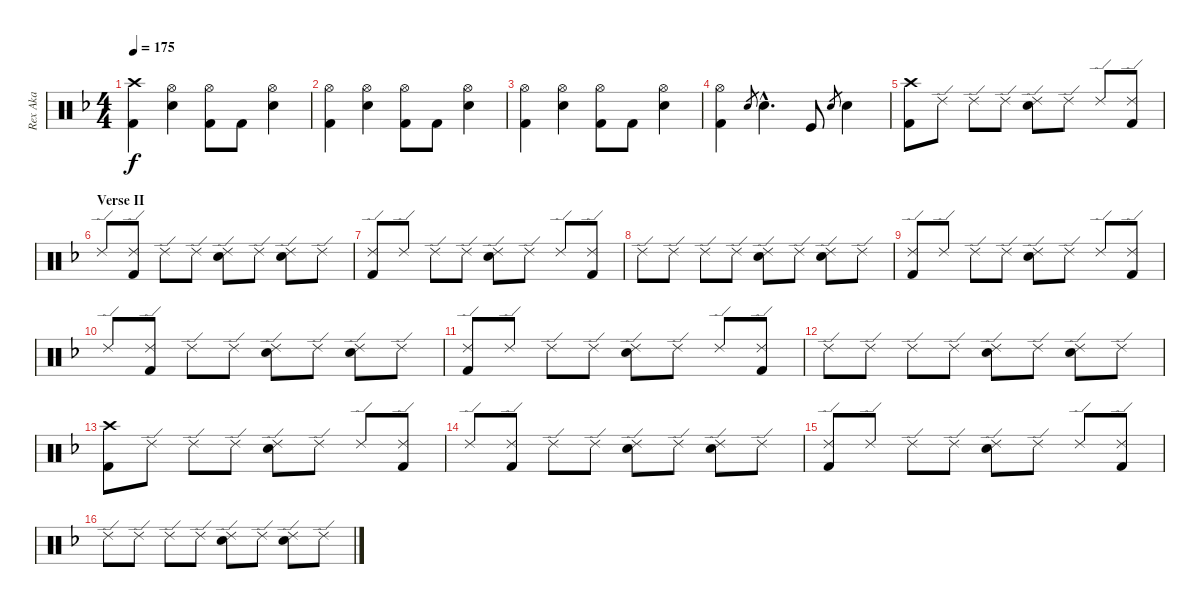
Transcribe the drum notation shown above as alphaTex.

\track ("Rex Aka" "Rex Aka") {instrument percussion}
\staff {score}
\articulation defaults
\ts (4 4)
\tempo 175
\clef neutral
\ks f
("Crash high (hit)" "Kick (hit) 2").4{dy f} ("Hi-Hat (open)" "Electric Snare (hit)").4 ("Hi-Hat (open)" "Kick (hit) 2").8 "Kick (hit) 2".8 ("Hi-Hat (open)" "Electric Snare (hit)").4 |
("Hi-Hat (open)" "Kick (hit) 2").4 ("Hi-Hat (open)" "Electric Snare (hit)").4 ("Hi-Hat (open)" "Kick (hit) 2").8 "Kick (hit) 2".8 ("Hi-Hat (open)" "Electric Snare (hit)").4 |
("Hi-Hat (open)" "Kick (hit) 2").4 ("Hi-Hat (open)" "Electric Snare (hit)").4 ("Hi-Hat (open)" "Kick (hit) 2").8 "Kick (hit) 2".8 ("Hi-Hat (open)" "Electric Snare (hit)").4 |
("Hi-Hat (open)" "Kick (hit) 2").4 "Electric Snare (hit)".8{gr} "Electric Snare (hit)"{hac}.4{d} "Kick (hit)".8 "Electric Snare (hit)".8{gr} "Electric Snare (hit)".4 |
("Crash high (hit)" "Kick (hit) 2").8 "Ride (edge) 2".8 "Ride (edge) 2".8 "Ride (edge) 2".8 ("Ride (edge) 2" "Electric Snare (hit)").8 "Ride (edge) 2".8 "Ride (edge) 2".8 ("Ride (edge) 2" "Kick (hit) 2").8 |
\section ("" "Verse II")
"Ride (edge) 2".8 ("Ride (edge) 2" "Kick (hit) 2").8 "Ride (edge) 2".8 "Ride (edge) 2".8 ("Ride (edge) 2" "Electric Snare (hit)").8 "Ride (edge) 2".8 ("Ride (edge) 2" "Electric Snare (hit)").8 "Ride (edge) 2".8 |
("Ride (edge) 2" "Kick (hit) 2").8 "Ride (edge) 2".8 "Ride (edge) 2".8 "Ride (edge) 2".8 ("Ride (edge) 2" "Electric Snare (hit)").8 "Ride (edge) 2".8 "Ride (edge) 2".8 ("Ride (edge) 2" "Kick (hit) 2").8 |
"Ride (edge) 2".8 "Ride (edge) 2".8 "Ride (edge) 2".8 "Ride (edge) 2".8 ("Ride (edge) 2" "Electric Snare (hit)").8 "Ride (edge) 2".8 ("Ride (edge) 2" "Electric Snare (hit)").8 "Ride (edge) 2".8 |
("Ride (edge) 2" "Kick (hit) 2").8 "Ride (edge) 2".8 "Ride (edge) 2".8 "Ride (edge) 2".8 ("Ride (edge) 2" "Electric Snare (hit)").8 "Ride (edge) 2".8 "Ride (edge) 2".8 ("Ride (edge) 2" "Kick (hit) 2").8 |
"Ride (edge) 2".8 ("Ride (edge) 2" "Kick (hit) 2").8 "Ride (edge) 2".8 "Ride (edge) 2".8 ("Ride (edge) 2" "Electric Snare (hit)").8 "Ride (edge) 2".8 ("Ride (edge) 2" "Electric Snare (hit)").8 "Ride (edge) 2".8 |
("Ride (edge) 2" "Kick (hit) 2").8 "Ride (edge) 2".8 "Ride (edge) 2".8 "Ride (edge) 2".8 ("Ride (edge) 2" "Electric Snare (hit)").8 "Ride (edge) 2".8 "Ride (edge) 2".8 ("Ride (edge) 2" "Kick (hit) 2").8 |
"Ride (edge) 2".8 "Ride (edge) 2".8 "Ride (edge) 2".8 "Ride (edge) 2".8 ("Ride (edge) 2" "Electric Snare (hit)").8 "Ride (edge) 2".8 ("Ride (edge) 2" "Electric Snare (hit)").8 "Ride (edge) 2".8 |
("Crash high (hit)" "Kick (hit) 2").8 "Ride (edge) 2".8 "Ride (edge) 2".8 "Ride (edge) 2".8 ("Ride (edge) 2" "Electric Snare (hit)").8 "Ride (edge) 2".8 "Ride (edge) 2".8 ("Ride (edge) 2" "Kick (hit) 2").8 |
"Ride (edge) 2".8 ("Ride (edge) 2" "Kick (hit) 2").8 "Ride (edge) 2".8 "Ride (edge) 2".8 ("Ride (edge) 2" "Electric Snare (hit)").8 "Ride (edge) 2".8 ("Ride (edge) 2" "Electric Snare (hit)").8 "Ride (edge) 2".8 |
("Ride (edge) 2" "Kick (hit) 2").8 "Ride (edge) 2".8 "Ride (edge) 2".8 "Ride (edge) 2".8 ("Ride (edge) 2" "Electric Snare (hit)").8 "Ride (edge) 2".8 "Ride (edge) 2".8 ("Ride (edge) 2" "Kick (hit) 2").8 |
"Ride (edge) 2".8 "Ride (edge) 2".8 "Ride (edge) 2".8 "Ride (edge) 2".8 ("Ride (edge) 2" "Electric Snare (hit)").8 "Ride (edge) 2".8 ("Ride (edge) 2" "Electric Snare (hit)").8 "Ride (edge) 2".8
